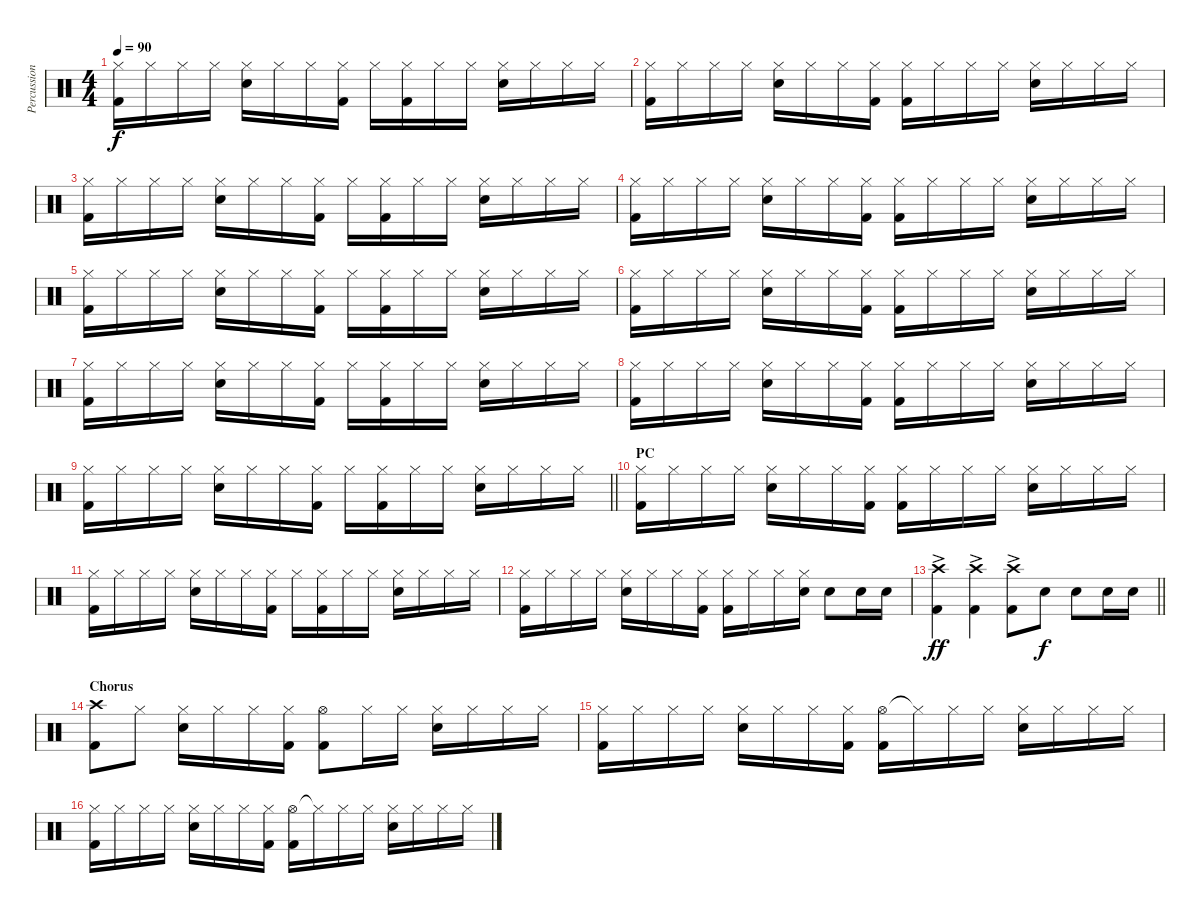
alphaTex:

\track ("Percussion" "Percussion") {instrument percussion}
\staff {score}
\articulation defaults
\ts (4 4)
\tempo 90
\clef neutral
\ks c
("Hi-Hat (closed)" "Kick (hit) 2").16{dy f} "Hi-Hat (closed)".16 "Hi-Hat (closed)".16 "Hi-Hat (closed)".16 ("Hi-Hat (closed)" "Electric Snare (hit)").16 "Hi-Hat (closed)".16 "Hi-Hat (closed)".16 ("Hi-Hat (closed)" "Kick (hit) 2").16 "Hi-Hat (closed)".16 ("Hi-Hat (closed)" "Kick (hit) 2").16 "Hi-Hat (closed)".16 "Hi-Hat (closed)".16 ("Hi-Hat (closed)" "Electric Snare (hit)").16 "Hi-Hat (closed)".16 "Hi-Hat (closed)".16 "Hi-Hat (closed)".16 |
("Hi-Hat (closed)" "Kick (hit) 2").16 "Hi-Hat (closed)".16 "Hi-Hat (closed)".16 "Hi-Hat (closed)".16 ("Hi-Hat (closed)" "Electric Snare (hit)").16 "Hi-Hat (closed)".16 "Hi-Hat (closed)".16 ("Hi-Hat (closed)" "Kick (hit) 2").16 ("Hi-Hat (closed)" "Kick (hit) 2").16 "Hi-Hat (closed)".16 "Hi-Hat (closed)".16 "Hi-Hat (closed)".16 ("Hi-Hat (closed)" "Electric Snare (hit)").16 "Hi-Hat (closed)".16 "Hi-Hat (closed)".16 "Hi-Hat (closed)".16 |
("Hi-Hat (closed)" "Kick (hit) 2").16 "Hi-Hat (closed)".16 "Hi-Hat (closed)".16 "Hi-Hat (closed)".16 ("Hi-Hat (closed)" "Electric Snare (hit)").16 "Hi-Hat (closed)".16 "Hi-Hat (closed)".16 ("Hi-Hat (closed)" "Kick (hit) 2").16 "Hi-Hat (closed)".16 ("Hi-Hat (closed)" "Kick (hit) 2").16 "Hi-Hat (closed)".16 "Hi-Hat (closed)".16 ("Hi-Hat (closed)" "Electric Snare (hit)").16 "Hi-Hat (closed)".16 "Hi-Hat (closed)".16 "Hi-Hat (closed)".16 |
("Hi-Hat (closed)" "Kick (hit) 2").16 "Hi-Hat (closed)".16 "Hi-Hat (closed)".16 "Hi-Hat (closed)".16 ("Hi-Hat (closed)" "Electric Snare (hit)").16 "Hi-Hat (closed)".16 "Hi-Hat (closed)".16 ("Hi-Hat (closed)" "Kick (hit) 2").16 ("Hi-Hat (closed)" "Kick (hit) 2").16 "Hi-Hat (closed)".16 "Hi-Hat (closed)".16 "Hi-Hat (closed)".16 ("Hi-Hat (closed)" "Electric Snare (hit)").16 "Hi-Hat (closed)".16 "Hi-Hat (closed)".16 "Hi-Hat (closed)".16 |
("Hi-Hat (closed)" "Kick (hit) 2").16 "Hi-Hat (closed)".16 "Hi-Hat (closed)".16 "Hi-Hat (closed)".16 ("Hi-Hat (closed)" "Electric Snare (hit)").16 "Hi-Hat (closed)".16 "Hi-Hat (closed)".16 ("Hi-Hat (closed)" "Kick (hit) 2").16 "Hi-Hat (closed)".16 ("Hi-Hat (closed)" "Kick (hit) 2").16 "Hi-Hat (closed)".16 "Hi-Hat (closed)".16 ("Hi-Hat (closed)" "Electric Snare (hit)").16 "Hi-Hat (closed)".16 "Hi-Hat (closed)".16 "Hi-Hat (closed)".16 |
("Hi-Hat (closed)" "Kick (hit) 2").16 "Hi-Hat (closed)".16 "Hi-Hat (closed)".16 "Hi-Hat (closed)".16 ("Hi-Hat (closed)" "Electric Snare (hit)").16 "Hi-Hat (closed)".16 "Hi-Hat (closed)".16 ("Hi-Hat (closed)" "Kick (hit) 2").16 ("Hi-Hat (closed)" "Kick (hit) 2").16 "Hi-Hat (closed)".16 "Hi-Hat (closed)".16 "Hi-Hat (closed)".16 ("Hi-Hat (closed)" "Electric Snare (hit)").16 "Hi-Hat (closed)".16 "Hi-Hat (closed)".16 "Hi-Hat (closed)".16 |
("Hi-Hat (closed)" "Kick (hit) 2").16 "Hi-Hat (closed)".16 "Hi-Hat (closed)".16 "Hi-Hat (closed)".16 ("Hi-Hat (closed)" "Electric Snare (hit)").16 "Hi-Hat (closed)".16 "Hi-Hat (closed)".16 ("Hi-Hat (closed)" "Kick (hit) 2").16 "Hi-Hat (closed)".16 ("Hi-Hat (closed)" "Kick (hit) 2").16 "Hi-Hat (closed)".16 "Hi-Hat (closed)".16 ("Hi-Hat (closed)" "Electric Snare (hit)").16 "Hi-Hat (closed)".16 "Hi-Hat (closed)".16 "Hi-Hat (closed)".16 |
("Hi-Hat (closed)" "Kick (hit) 2").16 "Hi-Hat (closed)".16 "Hi-Hat (closed)".16 "Hi-Hat (closed)".16 ("Hi-Hat (closed)" "Electric Snare (hit)").16 "Hi-Hat (closed)".16 "Hi-Hat (closed)".16 ("Hi-Hat (closed)" "Kick (hit) 2").16 ("Hi-Hat (closed)" "Kick (hit) 2").16 "Hi-Hat (closed)".16 "Hi-Hat (closed)".16 "Hi-Hat (closed)".16 ("Hi-Hat (closed)" "Electric Snare (hit)").16 "Hi-Hat (closed)".16 "Hi-Hat (closed)".16 "Hi-Hat (closed)".16 |
\barLineRight lightlight
("Hi-Hat (closed)" "Kick (hit) 2").16 "Hi-Hat (closed)".16 "Hi-Hat (closed)".16 "Hi-Hat (closed)".16 ("Hi-Hat (closed)" "Electric Snare (hit)").16 "Hi-Hat (closed)".16 "Hi-Hat (closed)".16 ("Hi-Hat (closed)" "Kick (hit) 2").16 "Hi-Hat (closed)".16 ("Hi-Hat (closed)" "Kick (hit) 2").16 "Hi-Hat (closed)".16 "Hi-Hat (closed)".16 ("Hi-Hat (closed)" "Electric Snare (hit)").16 "Hi-Hat (closed)".16 "Hi-Hat (closed)".16 "Hi-Hat (closed)".16 |
\section ("" "PC")
("Hi-Hat (closed)" "Kick (hit) 2").16 "Hi-Hat (closed)".16 "Hi-Hat (closed)".16 "Hi-Hat (closed)".16 ("Hi-Hat (closed)" "Electric Snare (hit)").16 "Hi-Hat (closed)".16 "Hi-Hat (closed)".16 ("Hi-Hat (closed)" "Kick (hit) 2").16 ("Hi-Hat (closed)" "Kick (hit) 2").16 "Hi-Hat (closed)".16 "Hi-Hat (closed)".16 "Hi-Hat (closed)".16 ("Hi-Hat (closed)" "Electric Snare (hit)").16 "Hi-Hat (closed)".16 "Hi-Hat (closed)".16 "Hi-Hat (closed)".16 |
("Hi-Hat (closed)" "Kick (hit) 2").16 "Hi-Hat (closed)".16 "Hi-Hat (closed)".16 "Hi-Hat (closed)".16 ("Hi-Hat (closed)" "Electric Snare (hit)").16 "Hi-Hat (closed)".16 "Hi-Hat (closed)".16 ("Hi-Hat (closed)" "Kick (hit) 2").16 "Hi-Hat (closed)".16 ("Hi-Hat (closed)" "Kick (hit) 2").16 "Hi-Hat (closed)".16 "Hi-Hat (closed)".16 ("Hi-Hat (closed)" "Electric Snare (hit)").16 "Hi-Hat (closed)".16 "Hi-Hat (closed)".16 "Hi-Hat (closed)".16 |
("Hi-Hat (closed)" "Kick (hit) 2").16 "Hi-Hat (closed)".16 "Hi-Hat (closed)".16 "Hi-Hat (closed)".16 ("Hi-Hat (closed)" "Electric Snare (hit)").16 "Hi-Hat (closed)".16 "Hi-Hat (closed)".16 ("Hi-Hat (closed)" "Kick (hit) 2").16 ("Hi-Hat (closed)" "Kick (hit) 2").16 "Hi-Hat (closed)".16 "Hi-Hat (closed)".16 ("Hi-Hat (closed)" "Electric Snare (hit)").16 "Electric Snare (hit)".8 "Electric Snare (hit)".16 "Electric Snare (hit)".16 |
\barLineRight lightlight
("Crash high (hit)"{ac} "Kick (hit) 2"{ac}).4{dy ff} ("Crash high (hit)"{ac} "Kick (hit) 2"{ac}).4 ("Crash high (hit)"{ac} "Kick (hit) 2"{ac}).8 "Electric Snare (hit)".8{dy f} "Electric Snare (hit)".8 "Electric Snare (hit)".16 "Electric Snare (hit)".16 |
\section ("" "Chorus")
("Crash high (hit)" "Kick (hit) 2").8 "Hi-Hat (closed)".8 ("Hi-Hat (closed)" "Electric Snare (hit)").16 "Hi-Hat (closed)".16 "Hi-Hat (closed)".16 ("Hi-Hat (closed)" "Kick (hit) 2").16 ("Hi-Hat (open)" "Kick (hit) 2").8 "Hi-Hat (closed)".16 "Hi-Hat (closed)".16 ("Hi-Hat (closed)" "Electric Snare (hit)").16 "Hi-Hat (closed)".16 "Hi-Hat (closed)".16 "Hi-Hat (closed)".16 |
("Hi-Hat (closed)" "Kick (hit) 2").16 "Hi-Hat (closed)".16 "Hi-Hat (closed)".16 "Hi-Hat (closed)".16 ("Hi-Hat (closed)" "Electric Snare (hit)").16 "Hi-Hat (closed)".16 "Hi-Hat (closed)".16 ("Hi-Hat (closed)" "Kick (hit) 2").16 ("Hi-Hat (open)" "Kick (hit) 2").16 "Hi-Hat (closed)"{t}.16 "Hi-Hat (closed)".16 "Hi-Hat (closed)".16 ("Hi-Hat (closed)" "Electric Snare (hit)").16 "Hi-Hat (closed)".16 "Hi-Hat (closed)".16 "Hi-Hat (closed)".16 |
("Hi-Hat (closed)" "Kick (hit) 2").16 "Hi-Hat (closed)".16 "Hi-Hat (closed)".16 "Hi-Hat (closed)".16 ("Hi-Hat (closed)" "Electric Snare (hit)").16 "Hi-Hat (closed)".16 "Hi-Hat (closed)".16 ("Hi-Hat (closed)" "Kick (hit) 2").16 ("Hi-Hat (open)" "Kick (hit) 2").16 "Hi-Hat (closed)"{t}.16 "Hi-Hat (closed)".16 "Hi-Hat (closed)".16 ("Hi-Hat (closed)" "Electric Snare (hit)").16 "Hi-Hat (closed)".16 "Hi-Hat (closed)".16 "Hi-Hat (closed)".16
